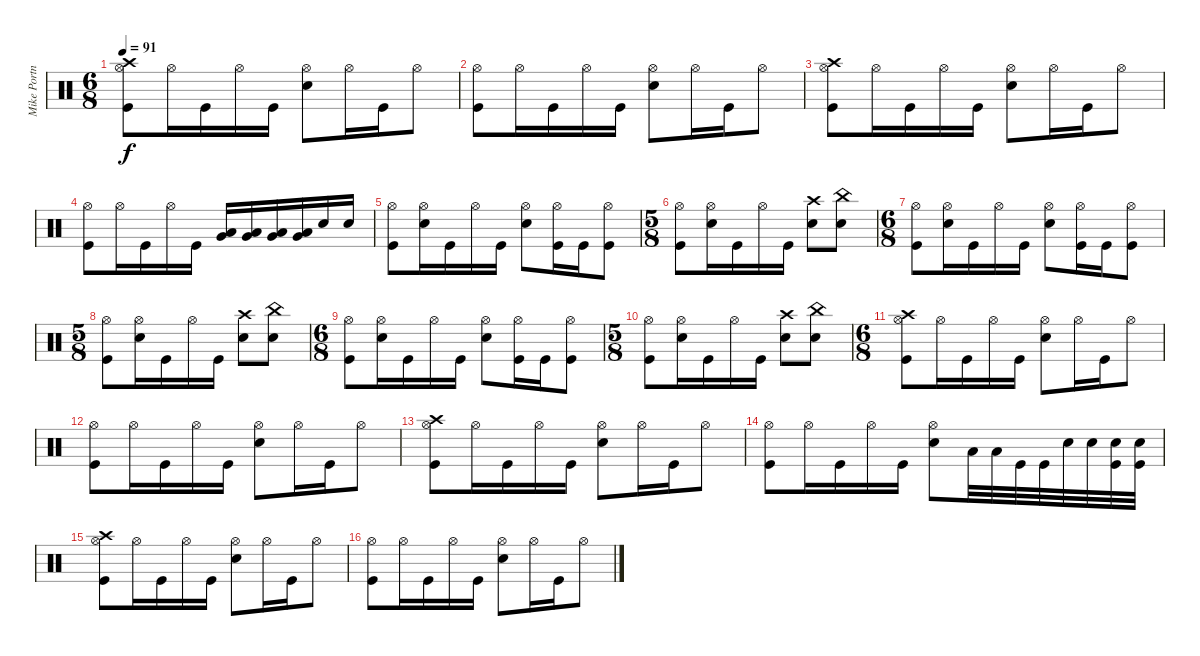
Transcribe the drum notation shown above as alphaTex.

\track ("Mike Portnoy - Drums" "Mike Portn") {instrument percussion}
\staff {score}
\articulation defaults
\ts (6 8)
\tempo 91
\clef neutral
\ks aminor
("Hi-Hat (open)" "Crash high (hit)" "Kick (hit)").8{dy f} "Hi-Hat (open)".16 "Kick (hit)".16 "Hi-Hat (open)".16 "Kick (hit)".16 ("Hi-Hat (open)" "Snare (hit) 2").8 "Hi-Hat (open)".16 "Kick (hit)".16 "Hi-Hat (open)".8 |
("Hi-Hat (open)" "Kick (hit)").8 "Hi-Hat (open)".16 "Kick (hit)".16 "Hi-Hat (open)".16 "Kick (hit)".16 ("Hi-Hat (open)" "Snare (hit) 2").8 "Hi-Hat (open)".16 "Kick (hit)".16 "Hi-Hat (open)".8 |
("Hi-Hat (open)" "Crash high (hit)" "Kick (hit)").8 "Hi-Hat (open)".16 "Kick (hit)".16 "Hi-Hat (open)".16 "Kick (hit)".16 ("Hi-Hat (open)" "Snare (hit) 2").8 "Hi-Hat (open)".16 "Kick (hit)".16 "Hi-Hat (open)".8 |
("Hi-Hat (open)" "Kick (hit)").8 "Hi-Hat (open)".16 "Kick (hit)".16 "Hi-Hat (open)".16 "Kick (hit)".16 ("Low Tom (hit)" "Very Low Tom (hit)").16 ("Low Tom (hit)" "Very Low Tom (hit)").16 ("Low Tom (hit)" "Very Low Tom (hit)").16 ("Low Tom (hit)" "Very Low Tom (hit)").16 "Snare (hit) 2".16 "Snare (hit) 2".16 |
("Hi-Hat (open)" "Kick (hit)").8 ("Hi-Hat (open)" "Snare (hit) 2").16 "Kick (hit)".16 "Hi-Hat (open)".16 "Kick (hit)".16 ("Hi-Hat (open)" "Snare (hit) 2").8 ("Hi-Hat (open)" "Kick (hit)").16 "Kick (hit)".16 ("Hi-Hat (open)" "Kick (hit)").8 |
\ts (5 8)
("Hi-Hat (open)" "Kick (hit)").8 ("Hi-Hat (open)" "Snare (hit) 2").16 "Kick (hit)".16 "Hi-Hat (open)".16 "Kick (hit)".16 ("Crash high (hit)" "Snare (hit) 2").8 ("China (hit)" "Snare (hit) 2").8 |
\ts (6 8)
("Hi-Hat (open)" "Kick (hit)").8 ("Hi-Hat (open)" "Snare (hit) 2").16 "Kick (hit)".16 "Hi-Hat (open)".16 "Kick (hit)".16 ("Hi-Hat (open)" "Snare (hit) 2").8 ("Hi-Hat (open)" "Kick (hit)").16 "Kick (hit)".16 ("Hi-Hat (open)" "Kick (hit)").8 |
\ts (5 8)
("Hi-Hat (open)" "Kick (hit)").8 ("Hi-Hat (open)" "Snare (hit) 2").16 "Kick (hit)".16 "Hi-Hat (open)".16 "Kick (hit)".16 ("Crash high (hit)" "Snare (hit) 2").8 ("China (hit)" "Snare (hit) 2").8 |
\ts (6 8)
("Hi-Hat (open)" "Kick (hit)").8 ("Hi-Hat (open)" "Snare (hit) 2").16 "Kick (hit)".16 "Hi-Hat (open)".16 "Kick (hit)".16 ("Hi-Hat (open)" "Snare (hit) 2").8 ("Hi-Hat (open)" "Kick (hit)").16 "Kick (hit)".16 ("Hi-Hat (open)" "Kick (hit)").8 |
\ts (5 8)
("Hi-Hat (open)" "Kick (hit)").8 ("Hi-Hat (open)" "Snare (hit) 2").16 "Kick (hit)".16 "Hi-Hat (open)".16 "Kick (hit)".16 ("Crash high (hit)" "Snare (hit) 2").8 ("China (hit)" "Snare (hit) 2").8 |
\ts (6 8)
("Hi-Hat (open)" "Crash high (hit)" "Kick (hit)").8 "Hi-Hat (open)".16 "Kick (hit)".16 "Hi-Hat (open)".16 "Kick (hit)".16 ("Hi-Hat (open)" "Snare (hit) 2").8 "Hi-Hat (open)".16 "Kick (hit)".16 "Hi-Hat (open)".8 |
("Hi-Hat (open)" "Kick (hit)").8 "Hi-Hat (open)".16 "Kick (hit)".16 "Hi-Hat (open)".16 "Kick (hit)".16 ("Hi-Hat (open)" "Snare (hit) 2").8 "Hi-Hat (open)".16 "Kick (hit)".16 "Hi-Hat (open)".8 |
("Hi-Hat (open)" "Crash high (hit)" "Kick (hit)").8 "Hi-Hat (open)".16 "Kick (hit)".16 "Hi-Hat (open)".16 "Kick (hit)".16 ("Hi-Hat (open)" "Snare (hit) 2").8 "Hi-Hat (open)".16 "Kick (hit)".16 "Hi-Hat (open)".8 |
("Hi-Hat (open)" "Kick (hit)").8 "Hi-Hat (open)".16 "Kick (hit)".16 "Hi-Hat (open)".16 "Kick (hit)".16 ("Hi-Hat (open)" "Snare (hit) 2").8 "Low Tom (hit)".32 "Low Tom (hit)".32 "Kick (hit)".32 "Kick (hit)".32 "Snare (hit) 2".32 "Snare (hit) 2".32 ("Snare (hit) 2" "Kick (hit)").32 ("Snare (hit) 2" "Kick (hit)").32 |
("Hi-Hat (open)" "Crash high (hit)" "Kick (hit)").8 "Hi-Hat (open)".16 "Kick (hit)".16 "Hi-Hat (open)".16 "Kick (hit)".16 ("Hi-Hat (open)" "Snare (hit) 2").8 "Hi-Hat (open)".16 "Kick (hit)".16 "Hi-Hat (open)".8 |
("Hi-Hat (open)" "Kick (hit)").8 "Hi-Hat (open)".16 "Kick (hit)".16 "Hi-Hat (open)".16 "Kick (hit)".16 ("Hi-Hat (open)" "Snare (hit) 2").8 "Hi-Hat (open)".16 "Kick (hit)".16 "Hi-Hat (open)".8
